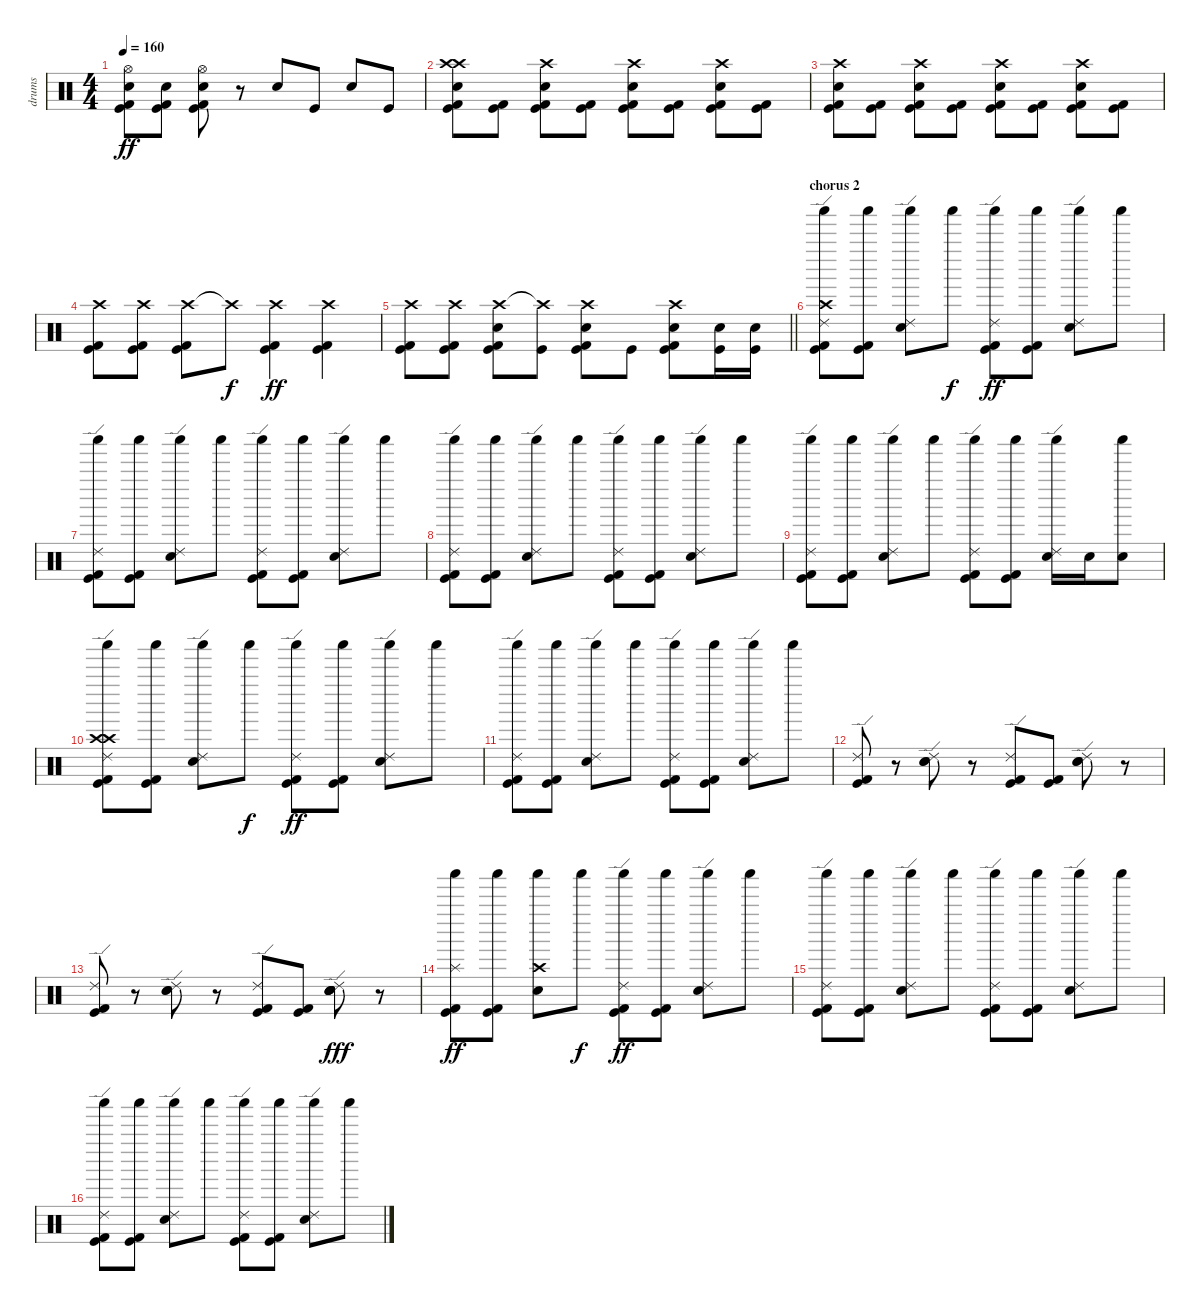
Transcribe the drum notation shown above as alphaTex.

\track ("drums" "drums") {instrument percussion}
\staff {score}
\articulation defaults
\ts (4 4)
\tempo 160
\clef neutral
\ks c
("Hi-Hat (open)" "Electric Snare (hit)" "Kick (hit) 2" "Kick (hit)").8{dy ff} ("Electric Snare (hit)" "Kick (hit) 2" "Kick (hit)").8 ("Hi-Hat (open)" "Electric Snare (hit)" "Kick (hit) 2" "Kick (hit)").8 r.8 "Electric Snare (hit)".8 "Kick (hit)".8 "Electric Snare (hit)".8 "Kick (hit)".8 |
("Crash high (hit)" "Crash high (hit)" "Electric Snare (hit)" "Kick (hit) 2" "Kick (hit)").8 ("Kick (hit) 2" "Kick (hit)").8 ("Crash high (hit)" "Electric Snare (hit)" "Kick (hit) 2" "Kick (hit)").8 ("Kick (hit) 2" "Kick (hit)").8 ("Crash high (hit)" "Electric Snare (hit)" "Kick (hit) 2" "Kick (hit)").8 ("Kick (hit) 2" "Kick (hit)").8 ("Crash high (hit)" "Electric Snare (hit)" "Kick (hit) 2" "Kick (hit)").8 ("Kick (hit) 2" "Kick (hit)").8 |
("Crash high (hit)" "Electric Snare (hit)" "Kick (hit) 2" "Kick (hit)").8 ("Kick (hit) 2" "Kick (hit)").8 ("Crash high (hit)" "Electric Snare (hit)" "Kick (hit) 2" "Kick (hit)").8 ("Kick (hit) 2" "Kick (hit)").8 ("Crash high (hit)" "Electric Snare (hit)" "Kick (hit) 2" "Kick (hit)").8 ("Kick (hit) 2" "Kick (hit)").8 ("Crash high (hit)" "Electric Snare (hit)" "Kick (hit) 2" "Kick (hit)").8 ("Kick (hit) 2" "Kick (hit)").8 |
("Crash high (hit)" "Kick (hit) 2" "Kick (hit)").8 ("Crash high (hit)" "Kick (hit) 2" "Kick (hit)").8 ("Crash high (hit)" "Kick (hit) 2" "Kick (hit)").8 "Crash high (hit)"{t}.8{dy f} ("Crash high (hit)" "Kick (hit) 2" "Kick (hit)").4{dy ff} ("Crash high (hit)" "Kick (hit) 2" "Kick (hit)").4 |
\barLineRight lightlight
("Crash high (hit)" "Kick (hit) 2" "Kick (hit)").8 ("Crash high (hit)" "Kick (hit) 2" "Kick (hit)").8 ("Crash high (hit)" "Electric Snare (hit)" "Kick (hit) 2" "Kick (hit)").8 ("Crash high (hit)"{t} "Kick (hit)").8 ("Crash high (hit)" "Electric Snare (hit)" "Kick (hit) 2" "Kick (hit)").8 "Kick (hit)".8 ("Crash high (hit)" "Electric Snare (hit)" "Kick (hit) 2" "Kick (hit)").8 ("Electric Snare (hit)" "Kick (hit)").16 ("Electric Snare (hit)" "Kick (hit)").16 |
\section ("" "chorus 2")
("Shaker (hit)" "Kick (hit) 2" "Ride (edge) 2" "Crash high (hit)" "Kick (hit)").8 ("Shaker (hit)" "Kick (hit) 2" "Kick (hit)").8 ("Shaker (hit)" "Ride (edge) 2" "Electric Snare (hit)").8 "Shaker (hit)".8{dy f} ("Shaker (hit)" "Kick (hit) 2" "Ride (edge) 2" "Kick (hit)").8{dy ff} ("Shaker (hit)" "Kick (hit) 2" "Kick (hit)").8 ("Shaker (hit)" "Ride (edge) 2" "Electric Snare (hit)").8 "Shaker (hit)".8 |
("Shaker (hit)" "Kick (hit) 2" "Ride (edge) 2" "Kick (hit)").8 ("Shaker (hit)" "Kick (hit) 2" "Kick (hit)").8 ("Shaker (hit)" "Ride (edge) 2" "Electric Snare (hit)").8 "Shaker (hit)".8 ("Shaker (hit)" "Kick (hit) 2" "Ride (edge) 2" "Kick (hit)").8 ("Shaker (hit)" "Kick (hit) 2" "Kick (hit)").8 ("Shaker (hit)" "Ride (edge) 2" "Electric Snare (hit)").8 "Shaker (hit)".8 |
("Shaker (hit)" "Kick (hit) 2" "Ride (edge) 2" "Kick (hit)").8 ("Shaker (hit)" "Kick (hit) 2" "Kick (hit)").8 ("Shaker (hit)" "Ride (edge) 2" "Electric Snare (hit)").8 "Shaker (hit)".8 ("Shaker (hit)" "Kick (hit) 2" "Ride (edge) 2" "Kick (hit)").8 ("Shaker (hit)" "Kick (hit) 2" "Kick (hit)").8 ("Shaker (hit)" "Ride (edge) 2" "Electric Snare (hit)").8 "Shaker (hit)".8 |
("Shaker (hit)" "Kick (hit) 2" "Ride (edge) 2" "Kick (hit)").8 ("Shaker (hit)" "Kick (hit) 2" "Kick (hit)").8 ("Shaker (hit)" "Ride (edge) 2" "Electric Snare (hit)").8 "Shaker (hit)".8 ("Shaker (hit)" "Kick (hit) 2" "Ride (edge) 2" "Kick (hit)").8 ("Shaker (hit)" "Kick (hit) 2" "Kick (hit)").8 ("Shaker (hit)" "Ride (edge) 2" "Electric Snare (hit)").16 "Electric Snare (hit)".16 ("Shaker (hit)" "Electric Snare (hit)").8 |
("Crash high (hit)" "Shaker (hit)" "Kick (hit) 2" "Ride (edge) 2" "Crash high (hit)" "Kick (hit)").8 ("Shaker (hit)" "Kick (hit) 2" "Kick (hit)").8 ("Shaker (hit)" "Ride (edge) 2" "Electric Snare (hit)").8 "Shaker (hit)".8{dy f} ("Shaker (hit)" "Kick (hit) 2" "Ride (edge) 2" "Kick (hit)").8{dy ff} ("Shaker (hit)" "Kick (hit) 2" "Kick (hit)").8 ("Shaker (hit)" "Ride (edge) 2" "Electric Snare (hit)").8 "Shaker (hit)".8 |
("Shaker (hit)" "Kick (hit) 2" "Ride (edge) 2" "Kick (hit)").8 ("Shaker (hit)" "Kick (hit) 2" "Kick (hit)").8 ("Shaker (hit)" "Ride (edge) 2" "Electric Snare (hit)").8 "Shaker (hit)".8 ("Shaker (hit)" "Kick (hit) 2" "Ride (edge) 2" "Kick (hit)").8 ("Shaker (hit)" "Kick (hit) 2" "Kick (hit)").8 ("Shaker (hit)" "Ride (edge) 2" "Electric Snare (hit)").8 "Shaker (hit)".8 |
("Ride (edge) 2" "Kick (hit) 2" "Kick (hit)").8 r.8 ("Ride (edge) 2" "Snare (hit) 2" "Electric Snare (hit)").8 r.8 ("Ride (edge) 2" "Kick (hit) 2" "Kick (hit)").8 ("Kick (hit) 2" "Kick (hit)").8 ("Ride (edge) 2" "Snare (hit) 2" "Electric Snare (hit)").8 r.8 |
("Ride (edge) 2" "Kick (hit) 2" "Kick (hit)").8 r.8 ("Ride (edge) 2" "Snare (hit) 2" "Electric Snare (hit)").8 r.8 ("Ride (edge) 2" "Kick (hit) 2" "Kick (hit)").8 ("Kick (hit) 2" "Kick (hit)").8 ("Ride (edge) 2" "Electric Snare (hit)" "Snare (hit) 2" "Electric Snare (hit)" "Snare (hit) 2").8{dy fff} r.8 |
("Shaker (hit)" "Kick (hit) 2" "Splash (hit)" "Kick (hit)").8{dy ff} ("Shaker (hit)" "Kick (hit) 2" "Kick (hit)").8 ("Shaker (hit)" "Crash high (hit)" "Electric Snare (hit)").8 "Shaker (hit)".8{dy f} ("Shaker (hit)" "Kick (hit) 2" "Ride (edge) 2" "Kick (hit)").8{dy ff} ("Shaker (hit)" "Kick (hit) 2" "Kick (hit)").8 ("Shaker (hit)" "Ride (edge) 2" "Electric Snare (hit)").8 "Shaker (hit)".8 |
("Shaker (hit)" "Kick (hit) 2" "Ride (edge) 2" "Kick (hit)").8 ("Shaker (hit)" "Kick (hit) 2" "Kick (hit)").8 ("Shaker (hit)" "Ride (edge) 2" "Electric Snare (hit)").8 "Shaker (hit)".8 ("Shaker (hit)" "Kick (hit) 2" "Ride (edge) 2" "Kick (hit)").8 ("Shaker (hit)" "Kick (hit) 2" "Kick (hit)").8 ("Shaker (hit)" "Ride (edge) 2" "Electric Snare (hit)").8 "Shaker (hit)".8 |
("Shaker (hit)" "Kick (hit) 2" "Ride (edge) 2" "Kick (hit)").8 ("Shaker (hit)" "Kick (hit) 2" "Kick (hit)").8 ("Shaker (hit)" "Ride (edge) 2" "Electric Snare (hit)").8 "Shaker (hit)".8 ("Shaker (hit)" "Kick (hit) 2" "Ride (edge) 2" "Kick (hit)").8 ("Shaker (hit)" "Kick (hit) 2" "Kick (hit)").8 ("Shaker (hit)" "Ride (edge) 2" "Electric Snare (hit)").8 "Shaker (hit)".8
